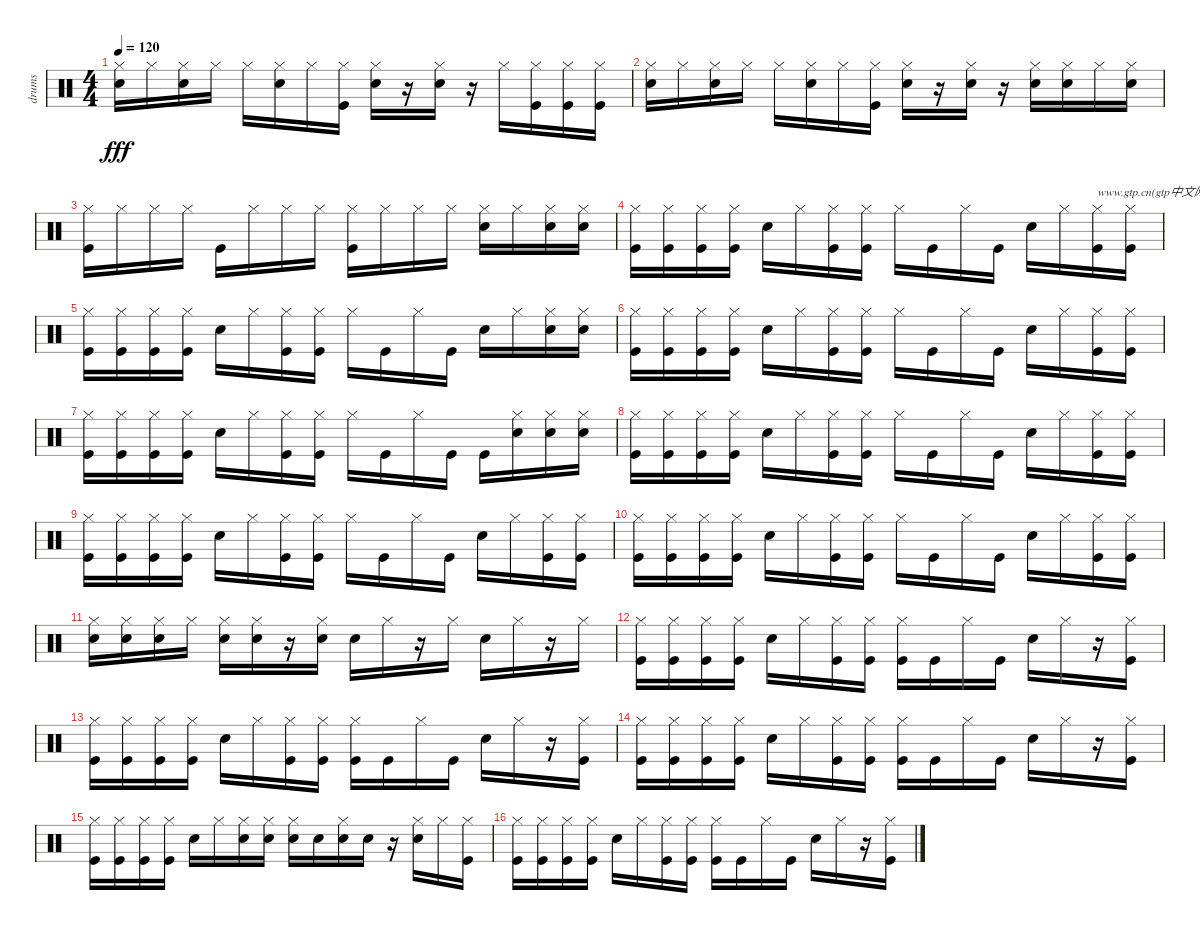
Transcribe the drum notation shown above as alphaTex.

\track ("drums" "drums") {instrument percussion}
\staff {score}
\articulation defaults
\ts (4 4)
\tempo 120
\clef neutral
\ks c
("Snare (hit) 2" "Hi-Hat (closed)").16{dy fff} "Hi-Hat (closed)".16 ("Snare (hit) 2" "Hi-Hat (closed)").16 "Hi-Hat (closed)".16 "Hi-Hat (closed)".16 ("Snare (hit) 2" "Hi-Hat (closed)").16 "Hi-Hat (closed)".16 ("Kick (hit)" "Hi-Hat (closed)").16 ("Snare (hit) 2" "Hi-Hat (closed)").16 r.16 ("Snare (hit) 2" "Hi-Hat (closed)").16 r.16 "Hi-Hat (closed)".16 ("Kick (hit)" "Hi-Hat (closed)").16 ("Kick (hit)" "Hi-Hat (closed)").16 ("Kick (hit)" "Hi-Hat (closed)").16 |
("Snare (hit) 2" "Hi-Hat (closed)").16 "Hi-Hat (closed)".16 ("Snare (hit) 2" "Hi-Hat (closed)").16 "Hi-Hat (closed)".16 "Hi-Hat (closed)".16 ("Snare (hit) 2" "Hi-Hat (closed)").16 "Hi-Hat (closed)".16 ("Kick (hit)" "Hi-Hat (closed)").16 ("Snare (hit) 2" "Hi-Hat (closed)").16 r.16 ("Snare (hit) 2" "Hi-Hat (closed)").16 r.16 ("Snare (hit) 2" "Hi-Hat (closed)").16 ("Snare (hit) 2" "Hi-Hat (closed)").16 "Hi-Hat (closed)".16 ("Snare (hit) 2" "Hi-Hat (closed)").16 |
("Kick (hit)" "Hi-Hat (closed)").16 "Hi-Hat (closed)".16 "Hi-Hat (closed)".16 "Hi-Hat (closed)".16 "Kick (hit)".16 "Hi-Hat (closed)".16 "Hi-Hat (closed)".16 "Hi-Hat (closed)".16 ("Kick (hit)" "Hi-Hat (closed)").16 "Hi-Hat (closed)".16 "Hi-Hat (closed)".16 "Hi-Hat (closed)".16 ("Snare (hit) 2" "Hi-Hat (closed)").16 "Hi-Hat (closed)".16 ("Snare (hit) 2" "Hi-Hat (closed)").16 ("Snare (hit) 2" "Hi-Hat (closed)").16 |
("Kick (hit)" "Hi-Hat (closed)").16 ("Kick (hit)" "Hi-Hat (closed)").16 ("Kick (hit)" "Hi-Hat (closed)").16 ("Kick (hit)" "Hi-Hat (closed)").16 "Snare (hit) 2".16 "Hi-Hat (closed)".16 ("Kick (hit)" "Hi-Hat (closed)").16 ("Kick (hit)" "Hi-Hat (closed)").16 "Hi-Hat (closed)".16 "Kick (hit)".16 "Hi-Hat (closed)".16 "Kick (hit)".16 "Snare (hit) 2".16 "Hi-Hat (closed)".16 ("Kick (hit)" "Hi-Hat (closed)").16{txt "www.gtp.cn(gtp中文网) www.51gtp.com(我要gtp)联合为"} ("Kick (hit)" "Hi-Hat (closed)").16 |
("Kick (hit)" "Hi-Hat (closed)").16 ("Kick (hit)" "Hi-Hat (closed)").16 ("Kick (hit)" "Hi-Hat (closed)").16 ("Kick (hit)" "Hi-Hat (closed)").16 "Snare (hit) 2".16 "Hi-Hat (closed)".16 ("Kick (hit)" "Hi-Hat (closed)").16 ("Kick (hit)" "Hi-Hat (closed)").16 "Hi-Hat (closed)".16 "Kick (hit)".16 "Hi-Hat (closed)".16 "Kick (hit)".16 "Snare (hit) 2".16 "Hi-Hat (closed)".16 ("Snare (hit) 2" "Hi-Hat (closed)").16 ("Snare (hit) 2" "Hi-Hat (closed)").16 |
("Kick (hit)" "Hi-Hat (closed)").16 ("Kick (hit)" "Hi-Hat (closed)").16 ("Kick (hit)" "Hi-Hat (closed)").16 ("Kick (hit)" "Hi-Hat (closed)").16 "Snare (hit) 2".16 "Hi-Hat (closed)".16 ("Kick (hit)" "Hi-Hat (closed)").16 ("Kick (hit)" "Hi-Hat (closed)").16 "Hi-Hat (closed)".16 "Kick (hit)".16 "Hi-Hat (closed)".16 "Kick (hit)".16 "Snare (hit) 2".16 "Hi-Hat (closed)".16 ("Kick (hit)" "Hi-Hat (closed)").16 ("Kick (hit)" "Hi-Hat (closed)").16 |
("Kick (hit)" "Hi-Hat (closed)").16 ("Kick (hit)" "Hi-Hat (closed)").16 ("Kick (hit)" "Hi-Hat (closed)").16 ("Kick (hit)" "Hi-Hat (closed)").16 "Snare (hit) 2".16 "Hi-Hat (closed)".16 ("Kick (hit)" "Hi-Hat (closed)").16 ("Kick (hit)" "Hi-Hat (closed)").16 "Hi-Hat (closed)".16 "Kick (hit)".16 "Hi-Hat (closed)".16 "Kick (hit)".16 "Kick (hit)".16 ("Snare (hit) 2" "Hi-Hat (closed)").16 ("Snare (hit) 2" "Hi-Hat (closed)").16 ("Snare (hit) 2" "Hi-Hat (closed)").16 |
("Kick (hit)" "Hi-Hat (closed)").16 ("Kick (hit)" "Hi-Hat (closed)").16 ("Kick (hit)" "Hi-Hat (closed)").16 ("Kick (hit)" "Hi-Hat (closed)").16 "Snare (hit) 2".16 "Hi-Hat (closed)".16 ("Kick (hit)" "Hi-Hat (closed)").16 ("Kick (hit)" "Hi-Hat (closed)").16 "Hi-Hat (closed)".16 "Kick (hit)".16 "Hi-Hat (closed)".16 "Kick (hit)".16 "Snare (hit) 2".16 "Hi-Hat (closed)".16 ("Kick (hit)" "Hi-Hat (closed)").16 ("Kick (hit)" "Hi-Hat (closed)").16 |
("Kick (hit)" "Hi-Hat (closed)").16 ("Kick (hit)" "Hi-Hat (closed)").16 ("Kick (hit)" "Hi-Hat (closed)").16 ("Kick (hit)" "Hi-Hat (closed)").16 "Snare (hit) 2".16 "Hi-Hat (closed)".16 ("Kick (hit)" "Hi-Hat (closed)").16 ("Kick (hit)" "Hi-Hat (closed)").16 "Hi-Hat (closed)".16 "Kick (hit)".16 "Hi-Hat (closed)".16 "Kick (hit)".16 "Snare (hit) 2".16 "Hi-Hat (closed)".16 ("Kick (hit)" "Hi-Hat (closed)").16 ("Kick (hit)" "Hi-Hat (closed)").16 |
("Kick (hit)" "Hi-Hat (closed)").16 ("Kick (hit)" "Hi-Hat (closed)").16 ("Kick (hit)" "Hi-Hat (closed)").16 ("Kick (hit)" "Hi-Hat (closed)").16 "Snare (hit) 2".16 "Hi-Hat (closed)".16 ("Kick (hit)" "Hi-Hat (closed)").16 ("Kick (hit)" "Hi-Hat (closed)").16 "Hi-Hat (closed)".16 "Kick (hit)".16 "Hi-Hat (closed)".16 "Kick (hit)".16 "Snare (hit) 2".16 "Hi-Hat (closed)".16 ("Kick (hit)" "Hi-Hat (closed)").16 ("Kick (hit)" "Hi-Hat (closed)").16 |
("Snare (hit) 2" "Hi-Hat (closed)").16 ("Snare (hit) 2" "Hi-Hat (closed)").16 ("Snare (hit) 2" "Hi-Hat (closed)").16 "Hi-Hat (closed)".16 ("Snare (hit) 2" "Hi-Hat (closed)").16 ("Snare (hit) 2" "Hi-Hat (closed)").16 r.16 ("Snare (hit) 2" "Hi-Hat (closed)").16 "Snare (hit) 2".16 "Hi-Hat (closed)".16 r.16 "Hi-Hat (closed)".16 "Snare (hit) 2".16 "Hi-Hat (closed)".16 r.16 "Hi-Hat (closed)".16 |
("Kick (hit)" "Hi-Hat (closed)").16 ("Kick (hit)" "Hi-Hat (closed)").16 ("Kick (hit)" "Hi-Hat (closed)").16 ("Kick (hit)" "Hi-Hat (closed)").16 "Snare (hit) 2".16 "Hi-Hat (closed)".16 ("Kick (hit)" "Hi-Hat (closed)").16 ("Kick (hit)" "Hi-Hat (closed)").16 ("Kick (hit)" "Hi-Hat (closed)").16 "Kick (hit)".16 "Hi-Hat (closed)".16 "Kick (hit)".16 "Snare (hit) 2".16 "Hi-Hat (closed)".16 r.16 ("Kick (hit)" "Hi-Hat (closed)").16 |
("Kick (hit)" "Hi-Hat (closed)").16 ("Kick (hit)" "Hi-Hat (closed)").16 ("Kick (hit)" "Hi-Hat (closed)").16 ("Kick (hit)" "Hi-Hat (closed)").16 "Snare (hit) 2".16 "Hi-Hat (closed)".16 ("Kick (hit)" "Hi-Hat (closed)").16 ("Kick (hit)" "Hi-Hat (closed)").16 ("Kick (hit)" "Hi-Hat (closed)").16 "Kick (hit)".16 "Hi-Hat (closed)".16 "Kick (hit)".16 "Snare (hit) 2".16 "Hi-Hat (closed)".16 r.16 ("Kick (hit)" "Hi-Hat (closed)").16 |
("Kick (hit)" "Hi-Hat (closed)").16 ("Kick (hit)" "Hi-Hat (closed)").16 ("Kick (hit)" "Hi-Hat (closed)").16 ("Kick (hit)" "Hi-Hat (closed)").16 "Snare (hit) 2".16 "Hi-Hat (closed)".16 ("Kick (hit)" "Hi-Hat (closed)").16 ("Kick (hit)" "Hi-Hat (closed)").16 ("Kick (hit)" "Hi-Hat (closed)").16 "Kick (hit)".16 "Hi-Hat (closed)".16 "Kick (hit)".16 "Snare (hit) 2".16 "Hi-Hat (closed)".16 r.16 ("Kick (hit)" "Hi-Hat (closed)").16 |
("Kick (hit)" "Hi-Hat (closed)").16 ("Kick (hit)" "Hi-Hat (closed)").16 ("Kick (hit)" "Hi-Hat (closed)").16 ("Kick (hit)" "Hi-Hat (closed)").16 "Snare (hit) 2".16 "Hi-Hat (closed)".16 ("Snare (hit) 2" "Hi-Hat (closed)").16 ("Snare (hit) 2" "Hi-Hat (closed)").16 ("Snare (hit) 2" "Hi-Hat (closed)").16 "Snare (hit) 2".16 ("Snare (hit) 2" "Hi-Hat (closed)").16 "Snare (hit) 2".16 r.16 ("Snare (hit) 2" "Hi-Hat (closed)").16 "Hi-Hat (closed)".16 ("Kick (hit)" "Hi-Hat (closed)").16 |
("Kick (hit)" "Hi-Hat (closed)").16 ("Kick (hit)" "Hi-Hat (closed)").16 ("Kick (hit)" "Hi-Hat (closed)").16 ("Kick (hit)" "Hi-Hat (closed)").16 "Snare (hit) 2".16 "Hi-Hat (closed)".16 ("Kick (hit)" "Hi-Hat (closed)").16 ("Kick (hit)" "Hi-Hat (closed)").16 ("Kick (hit)" "Hi-Hat (closed)").16 "Kick (hit)".16 "Hi-Hat (closed)".16 "Kick (hit)".16 "Snare (hit) 2".16 "Hi-Hat (closed)".16 r.16 ("Kick (hit)" "Hi-Hat (closed)").16
